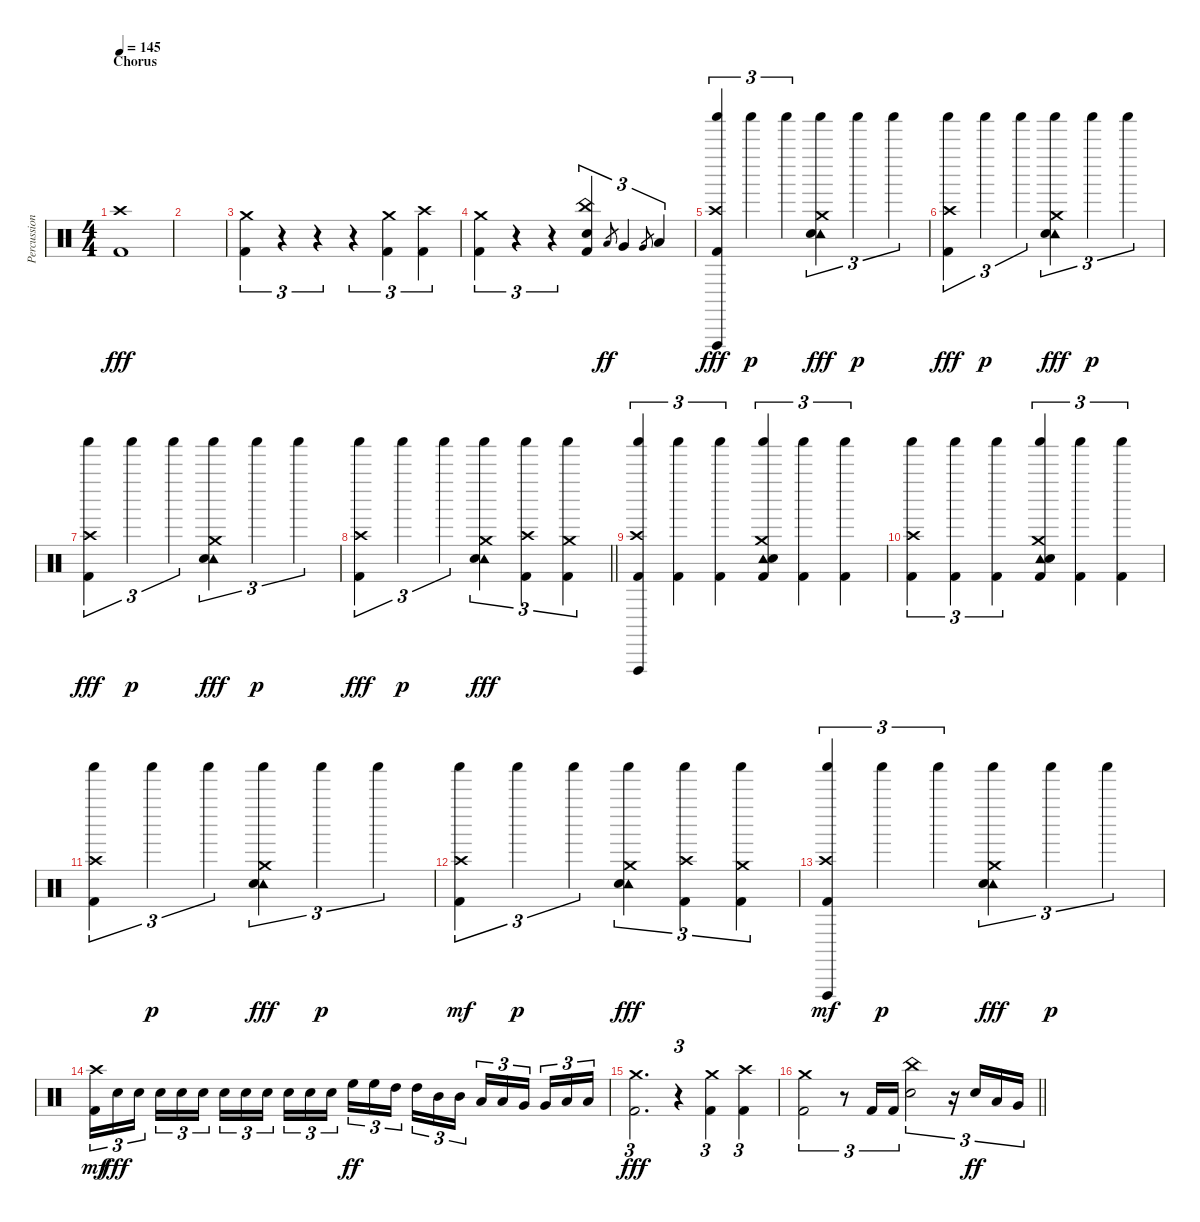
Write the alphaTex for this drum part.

\track ("Percussion" "Percussion") {instrument percussion}
\staff {score}
\articulation defaults
\ts (4 4)
\section ("" "Chorus")
\tempo 145
\clef neutral
\ks c
("Crash high (hit)" "Kick (hit) 2").1{dy fff} |
|
("Crash medium (hit)" "Kick (hit) 2").4{tu (3 2)} r.4{tu (3 2)} r.4{tu (3 2)} r.4{tu (3 2)} ("Crash medium (hit)" "Kick (hit) 2").4{tu (3 2)} ("Crash high (hit)" "Kick (hit) 2").4{tu (3 2)} |
("Crash medium (hit)" "Kick (hit) 2").4{tu (3 2)} r.4{tu (3 2)} r.4{tu (3 2)} ("China (hit)" "Electric Snare (hit)" "Kick (hit) 2").4{tu (3 2)} "Low Tom (hit)".8{gr dy ff} "Very Low Tom (hit)".4{tu (3 2)} "Very Low Tom (hit)".8{gr} "Low Floor Tom (hit)".4{tu (3 2)} |
("Shaker (hit)" "Crash high (hit)" "Vibraslap (hit)" "Kick (hit) 2").4{tu (3 2) dy fff} "Shaker (hit)".4{tu (3 2) dy p} "Shaker (hit)".4{tu (3 2)} ("Shaker (hit)" "Crash medium (hit)" "Tambourine (hit)" "Electric Snare (hit)").4{tu (3 2) dy fff} "Shaker (hit)".4{tu (3 2) dy p} "Shaker (hit)".4{tu (3 2)} |
("Shaker (hit)" "Crash high (hit)" "Kick (hit) 2").4{tu (3 2) dy fff} "Shaker (hit)".4{tu (3 2) dy p} "Shaker (hit)".4{tu (3 2)} ("Shaker (hit)" "Crash medium (hit)" "Tambourine (hit)" "Electric Snare (hit)").4{tu (3 2) dy fff} "Shaker (hit)".4{tu (3 2) dy p} "Shaker (hit)".4{tu (3 2)} |
("Shaker (hit)" "Crash high (hit)" "Kick (hit) 2").4{tu (3 2) dy fff} "Shaker (hit)".4{tu (3 2) dy p} "Shaker (hit)".4{tu (3 2)} ("Shaker (hit)" "Crash medium (hit)" "Tambourine (hit)" "Electric Snare (hit)").4{tu (3 2) dy fff} "Shaker (hit)".4{tu (3 2) dy p} "Shaker (hit)".4{tu (3 2)} |
\barLineRight lightlight
("Shaker (hit)" "Crash high (hit)" "Kick (hit) 2").4{tu (3 2) dy fff} "Shaker (hit)".4{tu (3 2) dy p} "Shaker (hit)".4{tu (3 2)} ("Shaker (hit)" "Crash medium (hit)" "Tambourine (hit)" "Electric Snare (hit)").4{tu (3 2) dy fff} ("Shaker (hit)" "Crash high (hit)" "Kick (hit) 2").4{tu (3 2)} ("Shaker (hit)" "Crash medium (hit)" "Kick (hit) 2").4{tu (3 2)} |
("Shaker (hit)" "Crash high (hit)" "Vibraslap (hit)" "Kick (hit) 2").4{tu (3 2)} ("Shaker (hit)" "Kick (hit) 2").4{tu (3 2)} ("Shaker (hit)" "Kick (hit) 2").4{tu (3 2)} ("Shaker (hit)" "Crash medium (hit)" "Tambourine (hit)" "Electric Snare (hit)" "Kick (hit) 2").4{tu (3 2)} ("Shaker (hit)" "Kick (hit) 2").4{tu (3 2)} ("Shaker (hit)" "Kick (hit) 2").4{tu (3 2)} |
("Shaker (hit)" "Crash high (hit)" "Kick (hit) 2").4{tu (3 2)} ("Shaker (hit)" "Kick (hit) 2").4{tu (3 2)} ("Shaker (hit)" "Kick (hit) 2").4{tu (3 2)} ("Shaker (hit)" "Crash medium (hit)" "Tambourine (hit)" "Electric Snare (hit)" "Kick (hit) 2").4{tu (3 2)} ("Shaker (hit)" "Kick (hit) 2").4{tu (3 2)} ("Shaker (hit)" "Kick (hit) 2").4{tu (3 2)} |
("Shaker (hit)" "Crash high (hit)" "Kick (hit) 2").4{tu (3 2)} "Shaker (hit)".4{tu (3 2) dy p} "Shaker (hit)".4{tu (3 2)} ("Shaker (hit)" "Crash medium (hit)" "Tambourine (hit)" "Electric Snare (hit)").4{tu (3 2) dy fff} "Shaker (hit)".4{tu (3 2) dy p} "Shaker (hit)".4{tu (3 2)} |
("Shaker (hit)" "Crash high (hit)" "Kick (hit) 2").4{tu (3 2) dy mf} "Shaker (hit)".4{tu (3 2) dy p} "Shaker (hit)".4{tu (3 2)} ("Shaker (hit)" "Crash medium (hit)" "Tambourine (hit)" "Electric Snare (hit)").4{tu (3 2) dy fff} ("Shaker (hit)" "Crash high (hit)" "Kick (hit) 2").4{tu (3 2)} ("Shaker (hit)" "Crash medium (hit)" "Kick (hit) 2").4{tu (3 2)} |
("Shaker (hit)" "Crash high (hit)" "Vibraslap (hit)" "Kick (hit) 2").4{tu (3 2) dy mf} "Shaker (hit)".4{tu (3 2) dy p} "Shaker (hit)".4{tu (3 2)} ("Shaker (hit)" "Crash medium (hit)" "Tambourine (hit)" "Electric Snare (hit)").4{tu (3 2) dy fff} "Shaker (hit)".4{tu (3 2) dy p} "Shaker (hit)".4{tu (3 2)} |
("Crash high (hit)" "Kick (hit) 2").16{tu (3 2) dy mf} "Electric Snare (hit)".16{tu (3 2) dy fff} "Electric Snare (hit)".16{tu (3 2) beam splitsecondary} "Electric Snare (hit)".16{tu (3 2)} "Electric Snare (hit)".16{tu (3 2)} "Electric Snare (hit)".16{tu (3 2)} "Electric Snare (hit)".16{tu (3 2)} "Electric Snare (hit)".16{tu (3 2)} "Electric Snare (hit)".16{tu (3 2) beam splitsecondary} "Electric Snare (hit)".16{tu (3 2)} "Electric Snare (hit)".16{tu (3 2)} "Electric Snare (hit)".16{tu (3 2)} "High Floor Tom (hit)".16{tu (3 2) dy ff} "High Floor Tom (hit)".16{tu (3 2)} "High Tom (hit)".16{tu (3 2) beam splitsecondary} "High Tom (hit)".16{tu (3 2)} "Mid Tom (hit)".16{tu (3 2)} "Mid Tom (hit)".16{tu (3 2)} "Low Tom (hit)".16{tu (3 2)} "Low Tom (hit)".16{tu (3 2)} "Very Low Tom (hit)".16{tu (3 2) beam splitsecondary} "Very Low Tom (hit)".16{tu (3 2)} "Low Floor Tom (hit)".16{tu (3 2)} "Low Floor Tom (hit)".16{tu (3 2)} |
("Crash medium (hit)" "Kick (hit) 2").2{d tu (3 2) dy fff} r.4{tu (3 2)} ("Crash medium (hit)" "Kick (hit) 2").4{tu (3 2)} ("Crash high (hit)" "Kick (hit) 2").4{tu (3 2)} |
\barLineRight lightlight
("Crash medium (hit)" "Kick (hit) 2").2{tu (3 2)} r.8{tu (3 2)} "Kick (hit) 2".16{tu (3 2)} "Kick (hit) 2".16{tu (3 2)} ("China (hit)" "Electric Snare (hit)").2{tu (3 2)} r.16{tu (3 2)} "Electric Snare (hit)".16{tu (3 2) dy ff} "Low Tom (hit)".16{tu (3 2)} "Very Low Tom (hit)".16{tu (3 2)}
